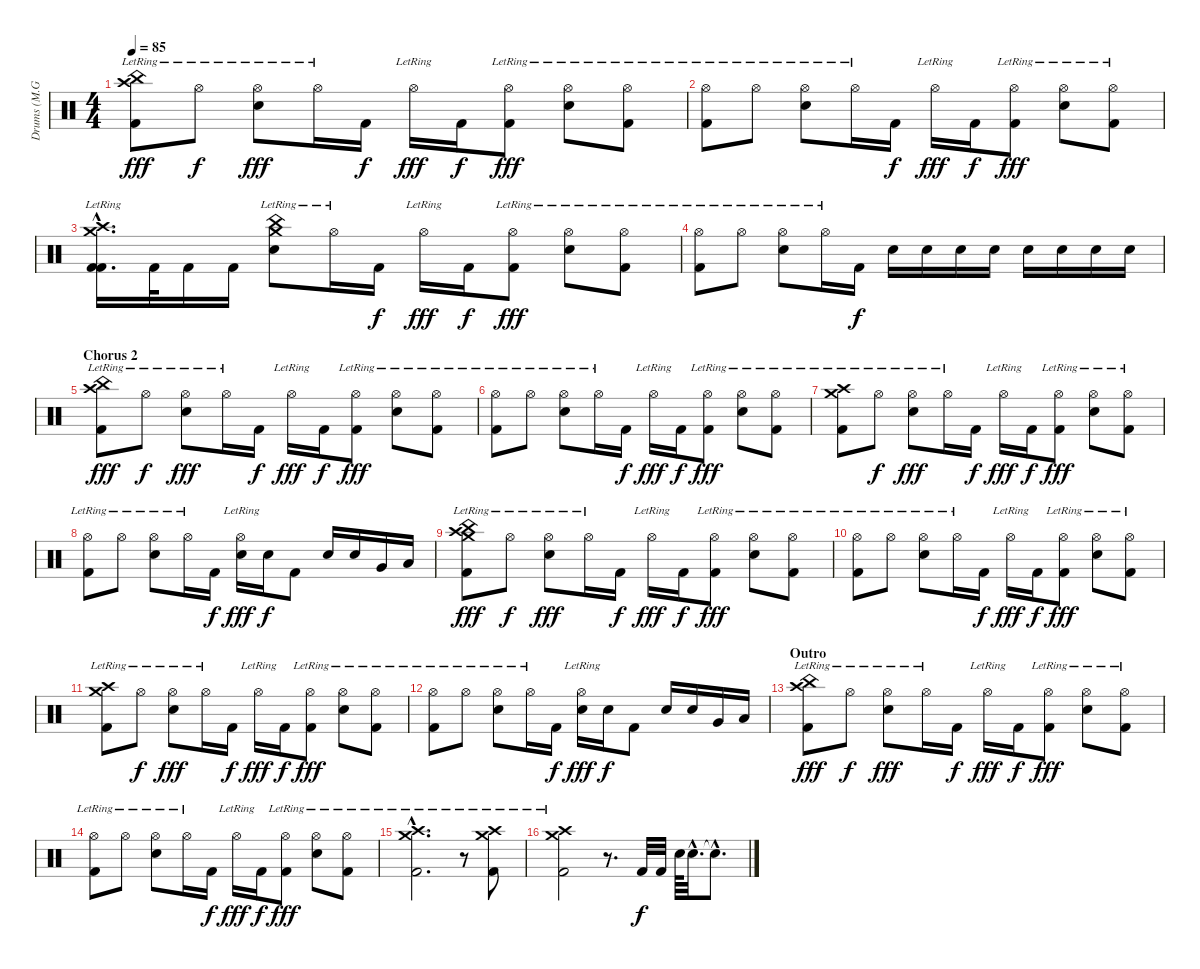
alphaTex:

\track ("Drums (M.Grosskopf)" "Drums (M.G") {instrument percussion}
\staff {score}
\articulation defaults
\ts (4 4)
\tempo 85
\clef neutral
\ks c
("Crash high (hit)"{lr} "Kick (hit) 2" "China (hit)"{lr}).8{dy fff} "Hi-Hat (open)"{lr}.8{dy f} ("Hi-Hat (open)"{lr} "Electric Snare (hit)").8{dy fff} "Hi-Hat (open)"{lr}.16 "Kick (hit) 2".16{dy f} "Hi-Hat (open)"{lr}.16{dy fff} "Kick (hit) 2".16{dy f} ("Hi-Hat (open)"{lr} "Kick (hit) 2").8{dy fff} ("Hi-Hat (open)"{lr} "Electric Snare (hit)").8 ("Hi-Hat (open)"{lr} "Kick (hit) 2").8 |
("Hi-Hat (open)"{lr} "Kick (hit) 2").8 "Hi-Hat (open)"{lr}.8 ("Hi-Hat (open)"{lr} "Electric Snare (hit)").8 "Hi-Hat (open)"{lr}.16 "Kick (hit) 2".16{dy f} "Hi-Hat (open)"{lr}.16{dy fff} "Kick (hit) 2".16{dy f} ("Hi-Hat (open)"{lr} "Kick (hit) 2").8{dy fff} ("Hi-Hat (open)"{lr} "Electric Snare (hit)").8 ("Hi-Hat (open)"{lr} "Kick (hit) 2").8 |
("Crash high (hit)"{hac lr} "Crash medium (hit)"{hac lr} "Kick (hit) 2"{hac} "Kick (hit) 2"{hac}).16{d} "Kick (hit) 2".32 "Kick (hit) 2".16 "Kick (hit) 2".16 ("China (hit)"{lr} "Crash medium (hit)"{lr} "Electric Snare (hit)").8 "Hi-Hat (open)"{lr}.16 "Kick (hit) 2".16{dy f} "Hi-Hat (open)"{lr}.16{dy fff} "Kick (hit) 2".16{dy f} ("Hi-Hat (open)"{lr} "Kick (hit) 2").8{dy fff} ("Hi-Hat (open)"{lr} "Electric Snare (hit)").8 ("Hi-Hat (open)"{lr} "Kick (hit) 2").8 |
("Hi-Hat (open)"{lr} "Kick (hit) 2").8 "Hi-Hat (open)"{lr}.8 ("Hi-Hat (open)"{lr} "Electric Snare (hit)").8 "Hi-Hat (open)"{lr}.16 "Kick (hit) 2".16{dy f} "Electric Snare (hit)".16 "Electric Snare (hit)".16 "Electric Snare (hit)".16 "Electric Snare (hit)".16 "Electric Snare (hit)".16 "Electric Snare (hit)".16 "Electric Snare (hit)".16 "Electric Snare (hit)".16 |
\section ("" "Chorus 2")
("Crash high (hit)"{lr} "Kick (hit) 2" "China (hit)"{lr}).8{dy fff} "Hi-Hat (open)"{lr}.8{dy f} ("Hi-Hat (open)"{lr} "Electric Snare (hit)").8{dy fff} "Hi-Hat (open)"{lr}.16 "Kick (hit) 2".16{dy f} "Hi-Hat (open)"{lr}.16{dy fff} "Kick (hit) 2".16{dy f} ("Hi-Hat (open)"{lr} "Kick (hit) 2").8{dy fff} ("Hi-Hat (open)"{lr} "Electric Snare (hit)").8 ("Hi-Hat (open)"{lr} "Kick (hit) 2").8 |
("Hi-Hat (open)"{lr} "Kick (hit) 2").8 "Hi-Hat (open)"{lr}.8 ("Hi-Hat (open)"{lr} "Electric Snare (hit)").8 "Hi-Hat (open)"{lr}.16 "Kick (hit) 2".16{dy f} "Hi-Hat (open)"{lr}.16{dy fff} "Kick (hit) 2".16{dy f} ("Hi-Hat (open)"{lr} "Kick (hit) 2").8{dy fff} ("Hi-Hat (open)"{lr} "Electric Snare (hit)").8 ("Hi-Hat (open)"{lr} "Kick (hit) 2").8 |
("Crash high (hit)"{lr} "Crash medium (hit)"{lr} "Kick (hit) 2").8 "Hi-Hat (open)"{lr}.8{dy f} ("Hi-Hat (open)"{lr} "Electric Snare (hit)").8{dy fff} "Hi-Hat (open)"{lr}.16 "Kick (hit) 2".16{dy f} "Hi-Hat (open)"{lr}.16{dy fff} "Kick (hit) 2".16{dy f} ("Hi-Hat (open)"{lr} "Kick (hit) 2").8{dy fff} ("Hi-Hat (open)"{lr} "Electric Snare (hit)").8 ("Hi-Hat (open)"{lr} "Kick (hit) 2").8 |
("Hi-Hat (open)"{lr} "Kick (hit) 2").8 "Hi-Hat (open)"{lr}.8 ("Hi-Hat (open)"{lr} "Electric Snare (hit)").8 "Hi-Hat (open)"{lr}.16 "Kick (hit) 2".16{dy f} ("Hi-Hat (open)"{lr} "Electric Snare (hit)").16{dy fff} "Electric Snare (hit)".16{dy f} "Kick (hit) 2".8 "Electric Snare (hit)".16 "Electric Snare (hit)".16 "Very Low Tom (hit)".16 "Low Floor Tom (hit)".16 |
("Crash high (hit)"{lr} "Crash medium (hit)"{lr} "Kick (hit) 2" "China (hit)"{lr}).8{dy fff} "Hi-Hat (open)"{lr}.8{dy f} ("Hi-Hat (open)"{lr} "Electric Snare (hit)").8{dy fff} "Hi-Hat (open)"{lr}.16 "Kick (hit) 2".16{dy f} "Hi-Hat (open)"{lr}.16{dy fff} "Kick (hit) 2".16{dy f} ("Hi-Hat (open)"{lr} "Kick (hit) 2").8{dy fff} ("Hi-Hat (open)"{lr} "Electric Snare (hit)").8 ("Hi-Hat (open)"{lr} "Kick (hit) 2").8 |
("Hi-Hat (open)"{lr} "Kick (hit) 2").8 "Hi-Hat (open)"{lr}.8 ("Hi-Hat (open)"{lr} "Electric Snare (hit)").8 "Hi-Hat (open)"{lr}.16 "Kick (hit) 2".16{dy f} "Hi-Hat (open)"{lr}.16{dy fff} "Kick (hit) 2".16{dy f} ("Hi-Hat (open)"{lr} "Kick (hit) 2").8{dy fff} ("Hi-Hat (open)"{lr} "Electric Snare (hit)").8 ("Hi-Hat (open)"{lr} "Kick (hit) 2").8 |
("Crash high (hit)"{lr} "Crash medium (hit)"{lr} "Kick (hit) 2").8 "Hi-Hat (open)"{lr}.8{dy f} ("Hi-Hat (open)"{lr} "Electric Snare (hit)").8{dy fff} "Hi-Hat (open)"{lr}.16 "Kick (hit) 2".16{dy f} "Hi-Hat (open)"{lr}.16{dy fff} "Kick (hit) 2".16{dy f} ("Hi-Hat (open)"{lr} "Kick (hit) 2").8{dy fff} ("Hi-Hat (open)"{lr} "Electric Snare (hit)").8 ("Hi-Hat (open)"{lr} "Kick (hit) 2").8 |
("Hi-Hat (open)"{lr} "Kick (hit) 2").8 "Hi-Hat (open)"{lr}.8 ("Hi-Hat (open)"{lr} "Electric Snare (hit)").8 "Hi-Hat (open)"{lr}.16 "Kick (hit) 2".16{dy f} ("Hi-Hat (open)"{lr} "Electric Snare (hit)").16{dy fff} "Electric Snare (hit)".16{dy f} "Kick (hit) 2".8 "Electric Snare (hit)".16 "Electric Snare (hit)".16 "Very Low Tom (hit)".16 "Low Floor Tom (hit)".16 |
\section ("" "Outro")
("Crash high (hit)"{lr} "Kick (hit) 2" "China (hit)"{lr}).8{dy fff} "Hi-Hat (open)"{lr}.8{dy f} ("Hi-Hat (open)"{lr} "Electric Snare (hit)").8{dy fff} "Hi-Hat (open)"{lr}.16 "Kick (hit) 2".16{dy f} "Hi-Hat (open)"{lr}.16{dy fff} "Kick (hit) 2".16{dy f} ("Hi-Hat (open)"{lr} "Kick (hit) 2").8{dy fff} ("Hi-Hat (open)"{lr} "Electric Snare (hit)").8 ("Hi-Hat (open)"{lr} "Kick (hit) 2").8 |
("Hi-Hat (open)"{lr} "Kick (hit) 2").8 "Hi-Hat (open)"{lr}.8 ("Hi-Hat (open)"{lr} "Electric Snare (hit)").8 "Hi-Hat (open)"{lr}.16 "Kick (hit) 2".16{dy f} "Hi-Hat (open)"{lr}.16{dy fff} "Kick (hit) 2".16{dy f} ("Hi-Hat (open)"{lr} "Kick (hit) 2").8{dy fff} ("Hi-Hat (open)"{lr} "Electric Snare (hit)").8 ("Hi-Hat (open)"{lr} "Kick (hit) 2").8 |
("Crash high (hit)"{hac lr} "Crash medium (hit)"{hac lr} "Kick (hit) 2"{hac}).2{d} r.8 ("Crash high (hit)"{lr} "Crash medium (hit)"{lr} "Kick (hit) 2").8 |
("Crash high (hit)"{lr} "Crash medium (hit)"{lr} "Kick (hit) 2").2 r.8{d} "Kick (hit) 2".32{dy f} "Kick (hit) 2".32 "Electric Snare (hit)".64 "Electric Snare (hit)"{hac}.32{d} "Snare (hit)"{hac t}.8{d}
